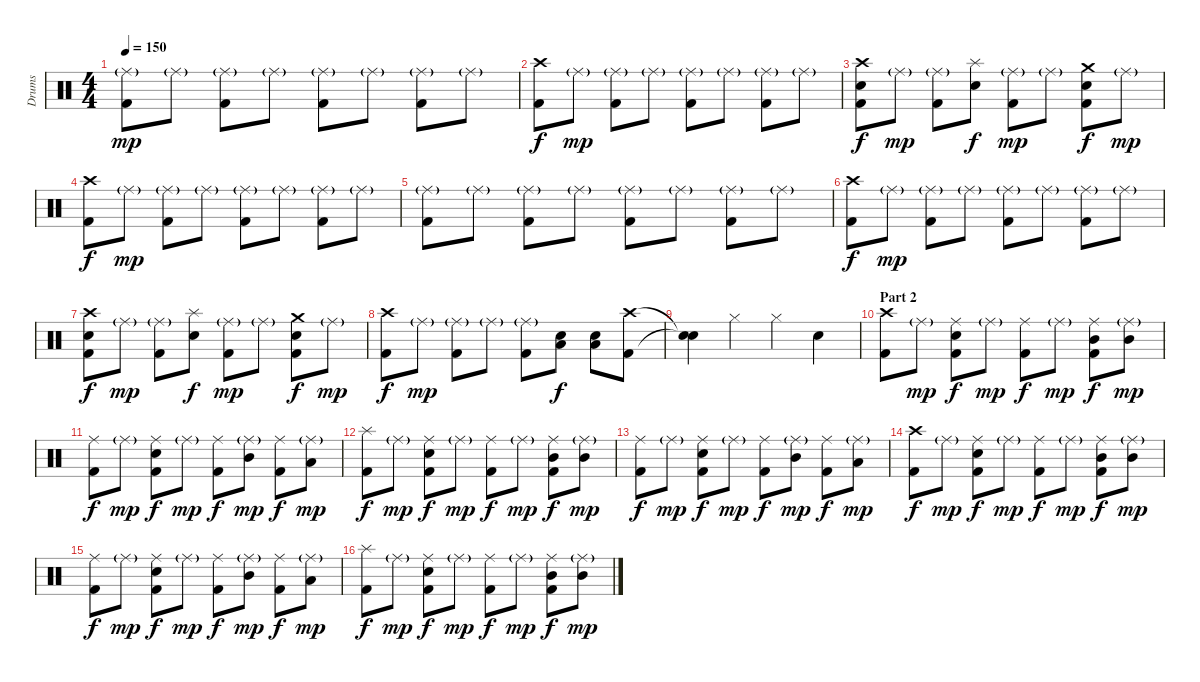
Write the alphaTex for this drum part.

\track ("Drums" "Drums") {instrument percussion}
\staff {score}
\articulation defaults
\ts (4 4)
\tempo 150
\clef neutral
\ks c
("Ride (middle)"{g} "Kick (hit) 2").8{dy mp} "Ride (middle)"{g}.8 ("Ride (middle)"{g} "Kick (hit) 2").8 "Ride (middle)"{g}.8 ("Ride (middle)"{g} "Kick (hit) 2").8 "Ride (middle)"{g}.8 ("Ride (middle)"{g} "Kick (hit) 2").8 "Ride (middle)"{g}.8 |
("Crash high (hit)" "Kick (hit) 2").8{dy f} "Ride (middle)"{g}.8{dy mp} ("Ride (middle)"{g} "Kick (hit) 2").8 "Ride (middle)"{g}.8 ("Ride (middle)"{g} "Kick (hit) 2").8 "Ride (middle)"{g}.8 ("Ride (middle)"{g} "Kick (hit) 2").8 "Ride (middle)"{g}.8 |
("Crash high (hit)" "Kick (hit) 2" "Electric Snare (hit)").8{dy f} "Ride (middle)"{g}.8{dy mp} ("Ride (middle)"{g} "Kick (hit) 2").8 ("Splash (hit)" "Electric Snare (hit)").8{dy f} ("Ride (middle)"{g} "Kick (hit) 2").8{dy mp} "Ride (middle)"{g}.8 ("Crash medium (hit)" "Kick (hit) 2" "Electric Snare (hit)").8{dy f} "Ride (middle)"{g}.8{dy mp} |
("Crash high (hit)" "Kick (hit) 2").8{dy f} "Ride (middle)"{g}.8{dy mp} ("Ride (middle)"{g} "Kick (hit) 2").8 "Ride (middle)"{g}.8 ("Ride (middle)"{g} "Kick (hit) 2").8 "Ride (middle)"{g}.8 ("Ride (middle)"{g} "Kick (hit) 2").8 "Ride (middle)"{g}.8 |
("Ride (middle)"{g} "Kick (hit) 2").8 "Ride (middle)"{g}.8 ("Ride (middle)"{g} "Kick (hit) 2").8 "Ride (middle)"{g}.8 ("Ride (middle)"{g} "Kick (hit) 2").8 "Ride (middle)"{g}.8 ("Ride (middle)"{g} "Kick (hit) 2").8 "Ride (middle)"{g}.8 |
("Crash high (hit)" "Kick (hit) 2").8{dy f} "Ride (middle)"{g}.8{dy mp} ("Ride (middle)"{g} "Kick (hit) 2").8 "Ride (middle)"{g}.8 ("Ride (middle)"{g} "Kick (hit) 2").8 "Ride (middle)"{g}.8 ("Ride (middle)"{g} "Kick (hit) 2").8 "Ride (middle)"{g}.8 |
("Crash high (hit)" "Kick (hit) 2" "Electric Snare (hit)").8{dy f} "Ride (middle)"{g}.8{dy mp} ("Ride (middle)"{g} "Kick (hit) 2").8 ("Splash (hit)" "Electric Snare (hit)").8{dy f} ("Ride (middle)"{g} "Kick (hit) 2").8{dy mp} "Ride (middle)"{g}.8 ("Crash medium (hit)" "Kick (hit) 2" "Electric Snare (hit)").8{dy f} "Ride (middle)"{g}.8{dy mp} |
("Crash high (hit)" "Kick (hit) 2").8{dy f} "Ride (middle)"{g}.8{dy mp} ("Ride (middle)"{g} "Kick (hit) 2").8 "Ride (middle)"{g}.8 ("Ride (middle)"{g} "Kick (hit) 2").8 ("Low Floor Tom (hit)" "Electric Snare (hit)").8{dy f} ("Low Floor Tom (hit)" "Electric Snare (hit)").8 ("Crash high (hit)" "Kick (hit) 2").8 |
("Snare (hit)"{t} "Snare (hit)"{t}).4 "Hi-Hat (closed)".4 "Hi-Hat (closed)".4 "Electric Snare (hit)".4 |
\section ("" "Part 2")
("Crash high (hit)" "Kick (hit) 2").8 "Ride (middle)"{g}.8{dy mp} ("Ride (middle)" "Kick (hit) 2" "Electric Snare (hit)").8{dy f} "Ride (middle)"{g}.8{dy mp} ("Ride (middle)" "Kick (hit) 2").8{dy f} "Ride (middle)"{g}.8{dy mp} ("Ride (middle)" "Kick (hit) 2" "Mid Tom (hit)").8{dy f} ("Ride (middle)"{g} "Mid Tom (hit)").8{dy mp} |
("Ride (middle)" "Kick (hit) 2").8{dy f} "Ride (middle)"{g}.8{dy mp} ("Ride (middle)" "Kick (hit) 2" "Electric Snare (hit)").8{dy f} "Ride (middle)"{g}.8{dy mp} ("Ride (middle)" "Kick (hit) 2").8{dy f} ("Ride (middle)"{g} "Mid Tom (hit)").8{dy mp} ("Ride (middle)" "Kick (hit) 2").8{dy f} ("Ride (middle)"{g} "Low Tom (hit)").8{dy mp} |
("Splash (hit)" "Kick (hit) 2").8{dy f} "Ride (middle)"{g}.8{dy mp} ("Ride (middle)" "Kick (hit) 2" "Electric Snare (hit)").8{dy f} "Ride (middle)"{g}.8{dy mp} ("Ride (middle)" "Kick (hit) 2").8{dy f} "Ride (middle)"{g}.8{dy mp} ("Ride (middle)" "Kick (hit) 2" "Mid Tom (hit)").8{dy f} ("Ride (middle)"{g} "Mid Tom (hit)").8{dy mp} |
("Ride (middle)" "Kick (hit) 2").8{dy f} "Ride (middle)"{g}.8{dy mp} ("Ride (middle)" "Kick (hit) 2" "Electric Snare (hit)").8{dy f} "Ride (middle)"{g}.8{dy mp} ("Ride (middle)" "Kick (hit) 2").8{dy f} ("Ride (middle)"{g} "Mid Tom (hit)").8{dy mp} ("Ride (middle)" "Kick (hit) 2").8{dy f} ("Ride (middle)"{g} "Low Tom (hit)").8{dy mp} |
("Crash high (hit)" "Kick (hit) 2").8{dy f} "Ride (middle)"{g}.8{dy mp} ("Ride (middle)" "Kick (hit) 2" "Electric Snare (hit)").8{dy f} "Ride (middle)"{g}.8{dy mp} ("Ride (middle)" "Kick (hit) 2").8{dy f} "Ride (middle)"{g}.8{dy mp} ("Ride (middle)" "Kick (hit) 2" "Mid Tom (hit)").8{dy f} ("Ride (middle)"{g} "Mid Tom (hit)").8{dy mp} |
("Ride (middle)" "Kick (hit) 2").8{dy f} "Ride (middle)"{g}.8{dy mp} ("Ride (middle)" "Kick (hit) 2" "Electric Snare (hit)").8{dy f} "Ride (middle)"{g}.8{dy mp} ("Ride (middle)" "Kick (hit) 2").8{dy f} ("Ride (middle)"{g} "Mid Tom (hit)").8{dy mp} ("Ride (middle)" "Kick (hit) 2").8{dy f} ("Ride (middle)"{g} "Low Tom (hit)").8{dy mp} |
("Splash (hit)" "Kick (hit) 2").8{dy f} "Ride (middle)"{g}.8{dy mp} ("Ride (middle)" "Kick (hit) 2" "Electric Snare (hit)").8{dy f} "Ride (middle)"{g}.8{dy mp} ("Ride (middle)" "Kick (hit) 2").8{dy f} "Ride (middle)"{g}.8{dy mp} ("Ride (middle)" "Kick (hit) 2" "Mid Tom (hit)").8{dy f} ("Ride (middle)"{g} "Mid Tom (hit)").8{dy mp}
